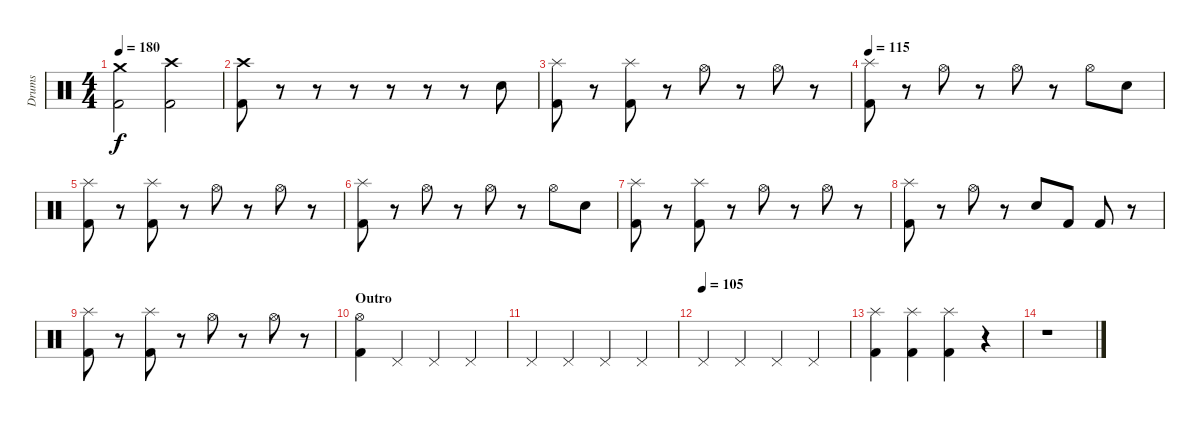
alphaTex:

\track ("Drums" "Drums") {instrument percussion}
\staff {score}
\articulation defaults
\ts (4 4)
\tempo 180
\clef neutral
\ks c
("Crash medium (hit)" "Kick (hit) 2").2{dy f} ("Crash high (hit)" "Kick (hit) 2").2 |
("Crash high (hit)" "Kick (hit) 2").8 r.8 r.8 r.8 r.8 r.8 r.8 "Snare (hit) 2".8 |
("Splash (hit)" "Kick (hit) 2").8 r.8 ("Splash (hit)" "Kick (hit) 2").8 r.8 "Hi-Hat (open)".8 r.8 "Hi-Hat (open)".8 r.8 |
\tempo 115
("Splash (hit)" "Kick (hit) 2").8 r.8 "Hi-Hat (open)".8 r.8 "Hi-Hat (open)".8 r.8 "Hi-Hat (open)".8 "Snare (hit) 2".8 |
("Splash (hit)" "Kick (hit) 2").8 r.8 ("Splash (hit)" "Kick (hit) 2").8 r.8 "Hi-Hat (open)".8 r.8 "Hi-Hat (open)".8 r.8 |
("Splash (hit)" "Kick (hit) 2").8 r.8 "Hi-Hat (open)".8 r.8 "Hi-Hat (open)".8 r.8 "Hi-Hat (open)".8 "Snare (hit) 2".8 |
("Splash (hit)" "Kick (hit) 2").8 r.8 ("Splash (hit)" "Kick (hit) 2").8 r.8 "Hi-Hat (open)".8 r.8 "Hi-Hat (open)".8 r.8 |
("Splash (hit)" "Kick (hit) 2").8 r.8 "Hi-Hat (open)".8 r.8 "Snare (hit) 2".8 "Kick (hit) 2".8 "Kick (hit) 2".8 r.8 |
("Splash (hit)" "Kick (hit) 2").8 r.8 ("Splash (hit)" "Kick (hit) 2").8 r.8 "Hi-Hat (open)".8 r.8 "Hi-Hat (open)".8 r.8 |
\section ("" "Outro")
("Hi-Hat (open)" "Kick (hit) 2").4 "Pedal Hi-Hat (hit)".4 "Pedal Hi-Hat (hit)".4 "Pedal Hi-Hat (hit)".4 |
"Pedal Hi-Hat (hit)".4 "Pedal Hi-Hat (hit)".4 "Pedal Hi-Hat (hit)".4 "Pedal Hi-Hat (hit)".4 |
\tempo (105)
"Pedal Hi-Hat (hit)".4 "Pedal Hi-Hat (hit)".4 "Pedal Hi-Hat (hit)".4 "Pedal Hi-Hat (hit)".4 |
("Splash (hit)" "Kick (hit) 2").4 ("Splash (hit)" "Kick (hit) 2").4 ("Splash (hit)" "Kick (hit) 2").4 r.4 |
r.1
